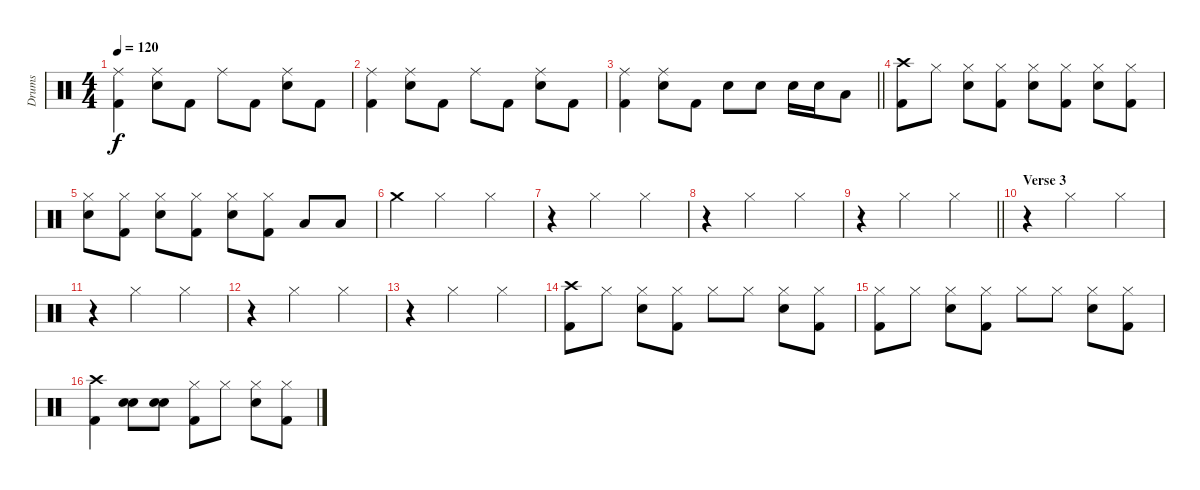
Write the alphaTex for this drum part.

\track ("Drums" "Drums") {instrument percussion}
\staff {score}
\articulation defaults
\ts (4 4)
\tempo 120
\clef neutral
\ks c
("Ride (middle)" "Kick (hit) 2").4{dy f} ("Ride (middle)" "Snare (hit) 2").8 "Kick (hit) 2".8 "Ride (middle)".8 "Kick (hit) 2".8 ("Ride (middle)" "Snare (hit) 2").8 "Kick (hit) 2".8 |
("Ride (middle)" "Kick (hit) 2").4 ("Ride (middle)" "Snare (hit) 2").8 "Kick (hit) 2".8 "Ride (middle)".8 "Kick (hit) 2".8 ("Ride (middle)" "Snare (hit) 2").8 "Kick (hit) 2".8 |
\barLineRight lightlight
("Ride (middle)" "Kick (hit) 2").4 ("Ride (middle)" "Snare (hit) 2").8 "Kick (hit) 2".8 "Snare (hit) 2".8 "Snare (hit) 2".8 "Snare (hit) 2".16 "Snare (hit) 2".16 "Low Tom (hit)".8 |
("Crash high (hit)" "Kick (hit) 2").8 "Hi-Hat (closed)".8 ("Hi-Hat (closed)" "Snare (hit) 2").8 ("Hi-Hat (closed)" "Kick (hit) 2").8 ("Hi-Hat (closed)" "Snare (hit) 2").8 ("Hi-Hat (closed)" "Kick (hit) 2").8 ("Hi-Hat (closed)" "Snare (hit) 2").8 ("Hi-Hat (closed)" "Kick (hit) 2").8 |
("Hi-Hat (closed)" "Snare (hit) 2").8 ("Hi-Hat (closed)" "Kick (hit) 2").8 ("Hi-Hat (closed)" "Snare (hit) 2").8 ("Hi-Hat (closed)" "Kick (hit) 2").8 ("Hi-Hat (closed)" "Snare (hit) 2").8 ("Hi-Hat (closed)" "Kick (hit) 2").8 "Low Tom (hit)".8 "Low Tom (hit)".8 |
"Crash medium (hit)".4 "Hi-Hat (closed)".2 "Hi-Hat (closed)".4 |
r.4 "Hi-Hat (closed)".2 "Hi-Hat (closed)".4 |
r.4 "Hi-Hat (closed)".2 "Hi-Hat (closed)".4 |
\barLineRight lightlight
r.4 "Hi-Hat (closed)".2 "Hi-Hat (closed)".4 |
\section ("" "Verse 3")
r.4 "Hi-Hat (closed)".2 "Hi-Hat (closed)".4 |
r.4 "Hi-Hat (closed)".2 "Hi-Hat (closed)".4 |
r.4 "Hi-Hat (closed)".2 "Hi-Hat (closed)".4 |
r.4 "Hi-Hat (closed)".2 "Hi-Hat (closed)".4 |
("Crash high (hit)" "Kick (hit) 2").8 "Hi-Hat (closed)".8 ("Hi-Hat (closed)" "Snare (hit) 2").8 ("Hi-Hat (closed)" "Kick (hit) 2").8 "Hi-Hat (closed)".8 "Hi-Hat (closed)".8 ("Hi-Hat (closed)" "Snare (hit) 2").8 ("Hi-Hat (closed)" "Kick (hit) 2").8 |
("Hi-Hat (closed)" "Kick (hit) 2").8 "Hi-Hat (closed)".8 ("Hi-Hat (closed)" "Snare (hit) 2").8 ("Hi-Hat (closed)" "Kick (hit) 2").8 "Hi-Hat (closed)".8 "Hi-Hat (closed)".8 ("Hi-Hat (closed)" "Snare (hit) 2").8 ("Hi-Hat (closed)" "Kick (hit) 2").8 |
("Crash high (hit)" "Kick (hit) 2").4 ("Snare (hit) 2" "Snare (hit) 2").8 ("Snare (hit) 2" "Snare (hit) 2").8 ("Hi-Hat (closed)" "Kick (hit) 2").8 "Hi-Hat (closed)".8 ("Hi-Hat (closed)" "Snare (hit) 2").8 ("Hi-Hat (closed)" "Kick (hit) 2").8
